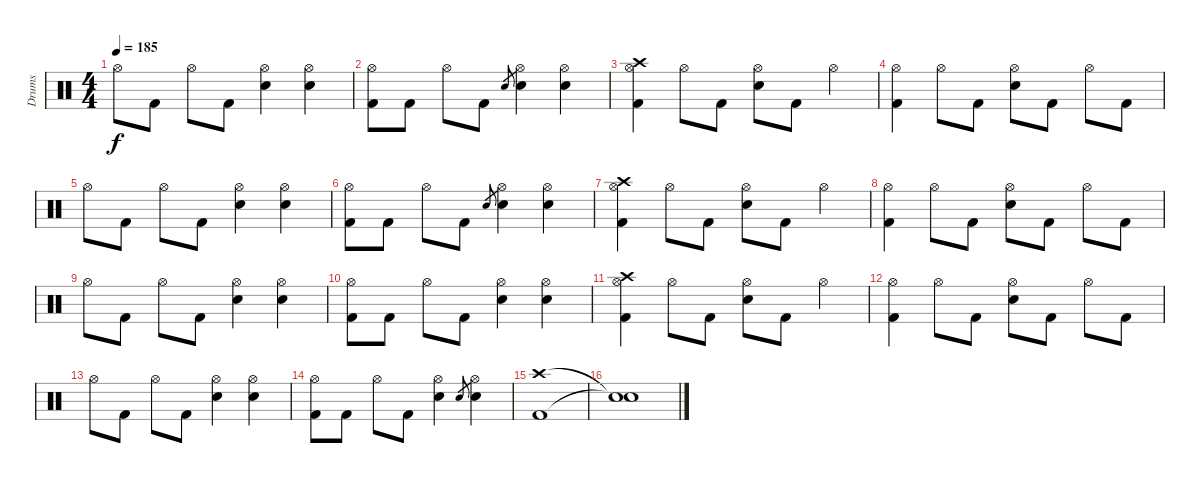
\track ("Drums" "Drums") {instrument percussion}
\staff {score}
\articulation defaults
\ts (4 4)
\tempo 185
\clef neutral
\ks c "Hi-Hat (open)".8{dy f} "Kick (hit) 2".8 "Hi-Hat (open)".8 "Kick (hit) 2".8
("Hi-Hat (open)" "Electric Snare (hit)").4 ("Hi-Hat (open)" "Electric Snare (hit)").4 |
("Hi-Hat (open)" "Kick (hit) 2").8 "Kick (hit) 2".8 "Hi-Hat (open)".8 "Kick (hit) 2".8 "Electric Snare (hit)".8{gr} ("Hi-Hat (open)" "Electric Snare (hit)").4 ("Hi-Hat (open)" "Electric Snare (hit)").4 |
("Hi-Hat (open)" "Kick (hit) 2" "Crash high (hit)").4 "Hi-Hat (open)".8 "Kick (hit) 2".8 ("Hi-Hat (open)" "Electric Snare (hit)").8 "Kick (hit) 2".8 "Hi-Hat (open)".4 |
("Hi-Hat (open)" "Kick (hit) 2").4 "Hi-Hat (open)".8 "Kick (hit) 2".8 ("Hi-Hat (open)" "Electric Snare (hit)").8 "Kick (hit) 2".8 "Hi-Hat (open)".8 "Kick (hit) 2".8 |
"Hi-Hat (open)".8 "Kick (hit) 2".8 "Hi-Hat (open)".8 "Kick (hit) 2".8 ("Hi-Hat (open)" "Electric Snare (hit)").4 ("Hi-Hat (open)" "Electric Snare (hit)").4 |
("Hi-Hat (open)" "Kick (hit) 2").8 "Kick (hit) 2".8 "Hi-Hat (open)".8 "Kick (hit) 2".8 "Electric Snare (hit)".8{gr} ("Hi-Hat (open)" "Electric Snare (hit)").4 ("Hi-Hat (open)" "Electric Snare (hit)").4 |
("Hi-Hat (open)" "Kick (hit) 2" "Crash high (hit)").4 "Hi-Hat (open)".8 "Kick (hit) 2".8 ("Hi-Hat (open)" "Electric Snare (hit)").8 "Kick (hit) 2".8 "Hi-Hat (open)".4 |
("Hi-Hat (open)" "Kick (hit) 2").4 "Hi-Hat (open)".8 "Kick (hit) 2".8 ("Hi-Hat (open)" "Electric Snare (hit)").8 "Kick (hit) 2".8 "Hi-Hat (open)".8 "Kick (hit) 2".8 |
"Hi-Hat (open)".8 "Kick (hit) 2".8 "Hi-Hat (open)".8 "Kick (hit) 2".8 ("Hi-Hat (open)" "Electric Snare (hit)").4 ("Hi-Hat (open)" "Electric Snare (hit)").4 |
("Hi-Hat (open)" "Kick (hit) 2").8 "Kick (hit) 2".8 "Hi-Hat (open)".8 "Kick (hit) 2".8 ("Hi-Hat (open)" "Electric Snare (hit)").4 ("Hi-Hat (open)" "Electric Snare (hit)").4 |
("Hi-Hat (open)" "Kick (hit) 2" "Crash high (hit)").4 "Hi-Hat (open)".8 "Kick (hit) 2".8 ("Hi-Hat (open)" "Electric Snare (hit)").8 "Kick (hit) 2".8 "Hi-Hat (open)".4 |
("Hi-Hat (open)" "Kick (hit) 2").4 "Hi-Hat (open)".8 "Kick (hit) 2".8 ("Hi-Hat (open)" "Electric Snare (hit)").8 "Kick (hit) 2".8 "Hi-Hat (open)".8 "Kick (hit) 2".8 |
"Hi-Hat (open)".8 "Kick (hit) 2".8 "Hi-Hat (open)".8 "Kick (hit) 2".8 ("Hi-Hat (open)" "Electric Snare (hit)").4 ("Hi-Hat (open)" "Electric Snare (hit)").4 |
("Hi-Hat (open)" "Kick (hit) 2").8 "Kick (hit) 2".8 "Hi-Hat (open)".8 "Kick (hit) 2".8 ("Hi-Hat (open)" "Electric Snare (hit)").4 "Electric Snare (hit)".8{gr} ("Hi-Hat (open)" "Electric Snare (hit)").4 |
("Kick (hit) 2" "Crash high (hit)").1 |
("Snare (hit)"{t} "Snare (hit)"{t}).1
